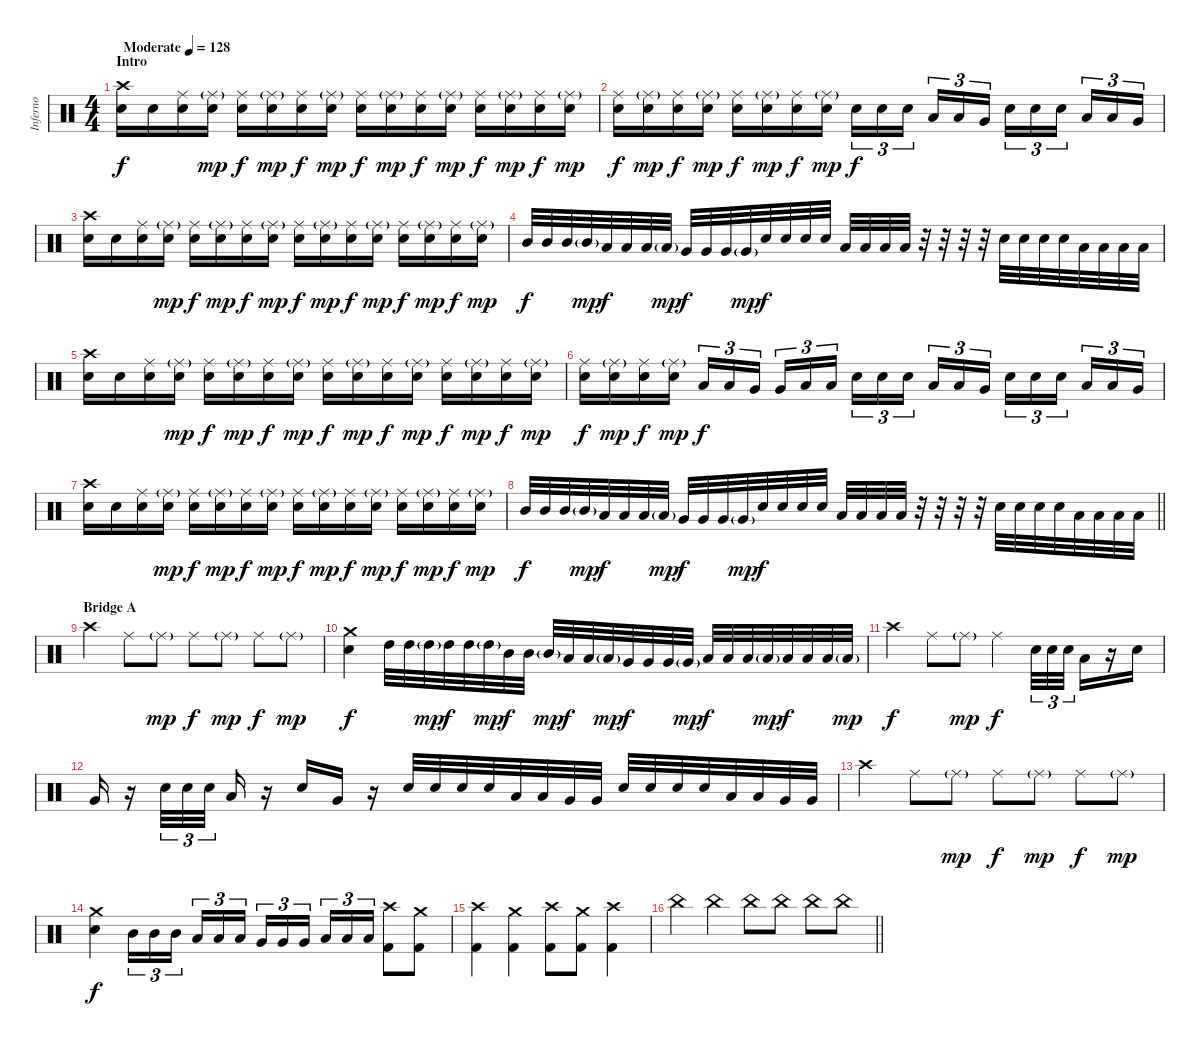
\track ("Inferno" "Inferno") {instrument percussion}
\staff {score}
\articulation defaults
\ts (4 4)
\section ("" "Intro")
\tempo (128 "Moderate")
\clef neutral
\ks c
("Crash high (hit)" "Snare (hit) 2").16{dy f} "Snare (hit) 2".16 ("Ride (middle)" "Snare (hit) 2").16 ("Ride (middle)"{g} "Snare (hit) 2").16{dy mp} ("Ride (middle)" "Snare (hit) 2").16{dy f} ("Ride (middle)"{g} "Snare (hit) 2").16{dy mp} ("Ride (middle)" "Snare (hit) 2").16{dy f} ("Ride (middle)"{g} "Snare (hit) 2").16{dy mp} ("Ride (middle)" "Snare (hit) 2").16{dy f} ("Ride (middle)"{g} "Snare (hit) 2").16{dy mp} ("Ride (middle)" "Snare (hit) 2").16{dy f} ("Ride (middle)"{g} "Snare (hit) 2").16{dy mp} ("Ride (middle)" "Snare (hit) 2").16{dy f} ("Ride (middle)"{g} "Snare (hit) 2").16{dy mp} ("Ride (middle)" "Snare (hit) 2").16{dy f} ("Ride (middle)"{g} "Snare (hit) 2").16{dy mp} |
("Ride (middle)" "Snare (hit) 2").16{dy f} ("Ride (middle)"{g} "Snare (hit) 2").16{dy mp} ("Ride (middle)" "Snare (hit) 2").16{dy f} ("Ride (middle)"{g} "Snare (hit) 2").16{dy mp} ("Ride (middle)" "Snare (hit) 2").16{dy f} ("Ride (middle)"{g} "Snare (hit) 2").16{dy mp} ("Ride (middle)" "Snare (hit) 2").16{dy f} ("Ride (middle)"{g} "Snare (hit) 2").16{dy mp} "Snare (hit) 2".16{tu (3 2) dy f} "Snare (hit) 2".16{tu (3 2)} "Snare (hit) 2".16{tu (3 2) beam splitsecondary} "Low Tom (hit)".16{tu (3 2)} "Low Tom (hit)".16{tu (3 2)} "Very Low Tom (hit)".16{tu (3 2)} "Snare (hit) 2".16{tu (3 2)} "Snare (hit) 2".16{tu (3 2)} "Snare (hit) 2".16{tu (3 2) beam splitsecondary} "Low Tom (hit)".16{tu (3 2)} "Low Tom (hit)".16{tu (3 2)} "Very Low Tom (hit)".16{tu (3 2)} |
("Crash high (hit)" "Snare (hit) 2").16 "Snare (hit) 2".16 ("Ride (middle)" "Snare (hit) 2").16 ("Ride (middle)"{g} "Snare (hit) 2").16{dy mp} ("Ride (middle)" "Snare (hit) 2").16{dy f} ("Ride (middle)"{g} "Snare (hit) 2").16{dy mp} ("Ride (middle)" "Snare (hit) 2").16{dy f} ("Ride (middle)"{g} "Snare (hit) 2").16{dy mp} ("Ride (middle)" "Snare (hit) 2").16{dy f} ("Ride (middle)"{g} "Snare (hit) 2").16{dy mp} ("Ride (middle)" "Snare (hit) 2").16{dy f} ("Ride (middle)"{g} "Snare (hit) 2").16{dy mp} ("Ride (middle)" "Snare (hit) 2").16{dy f} ("Ride (middle)"{g} "Snare (hit) 2").16{dy mp} ("Ride (middle)" "Snare (hit) 2").16{dy f} ("Ride (middle)"{g} "Snare (hit) 2").16{dy mp} |
"Mid Tom (hit)".32{dy f} "Mid Tom (hit)".32 "Mid Tom (hit)".32 "Mid Tom (hit)"{g}.32{dy mp} "Low Tom (hit)".32{dy f} "Low Tom (hit)".32 "Low Tom (hit)".32 "Low Tom (hit)"{g}.32{dy mp} "Very Low Tom (hit)".32{dy f} "Very Low Tom (hit)".32 "Very Low Tom (hit)".32 "Very Low Tom (hit)"{g}.32{dy mp} "Snare (hit) 2".32{dy f} "Snare (hit) 2".32 "Snare (hit) 2".32 "Snare (hit) 2".32 "Low Floor Tom (hit)".32 "Low Floor Tom (hit)".32 "Low Floor Tom (hit)".32 "Low Floor Tom (hit)".32 r.32 r.32 r.32 r.32 "Snare (hit) 2".32 "Snare (hit) 2".32 "Snare (hit) 2".32 "Snare (hit) 2".32 "Low Tom (hit)".32 "Low Tom (hit)".32 "Low Tom (hit)".32 "Low Tom (hit)".32 |
("Crash high (hit)" "Snare (hit) 2").16 "Snare (hit) 2".16 ("Ride (middle)" "Snare (hit) 2").16 ("Ride (middle)"{g} "Snare (hit) 2").16{dy mp} ("Ride (middle)" "Snare (hit) 2").16{dy f} ("Ride (middle)"{g} "Snare (hit) 2").16{dy mp} ("Ride (middle)" "Snare (hit) 2").16{dy f} ("Ride (middle)"{g} "Snare (hit) 2").16{dy mp} ("Ride (middle)" "Snare (hit) 2").16{dy f} ("Ride (middle)"{g} "Snare (hit) 2").16{dy mp} ("Ride (middle)" "Snare (hit) 2").16{dy f} ("Ride (middle)"{g} "Snare (hit) 2").16{dy mp} ("Ride (middle)" "Snare (hit) 2").16{dy f} ("Ride (middle)"{g} "Snare (hit) 2").16{dy mp} ("Ride (middle)" "Snare (hit) 2").16{dy f} ("Ride (middle)"{g} "Snare (hit) 2").16{dy mp} |
("Ride (middle)" "Snare (hit) 2").16{dy f} ("Ride (middle)"{g} "Snare (hit) 2").16{dy mp} ("Ride (middle)" "Snare (hit) 2").16{dy f} ("Ride (middle)"{g} "Snare (hit) 2").16{dy mp} "Low Tom (hit)".16{tu (3 2) dy f} "Low Tom (hit)".16{tu (3 2)} "Very Low Tom (hit)".16{tu (3 2) beam splitsecondary} "Very Low Tom (hit)".16{tu (3 2)} "Low Floor Tom (hit)".16{tu (3 2)} "Low Floor Tom (hit)".16{tu (3 2)} "Snare (hit) 2".16{tu (3 2)} "Snare (hit) 2".16{tu (3 2)} "Snare (hit) 2".16{tu (3 2) beam splitsecondary} "Low Tom (hit)".16{tu (3 2)} "Low Tom (hit)".16{tu (3 2)} "Very Low Tom (hit)".16{tu (3 2)} "Snare (hit) 2".16{tu (3 2)} "Snare (hit) 2".16{tu (3 2)} "Snare (hit) 2".16{tu (3 2) beam splitsecondary} "Low Tom (hit)".16{tu (3 2)} "Low Tom (hit)".16{tu (3 2)} "Very Low Tom (hit)".16{tu (3 2)} |
("Crash high (hit)" "Snare (hit) 2").16 "Snare (hit) 2".16 ("Ride (middle)" "Snare (hit) 2").16 ("Ride (middle)"{g} "Snare (hit) 2").16{dy mp} ("Ride (middle)" "Snare (hit) 2").16{dy f} ("Ride (middle)"{g} "Snare (hit) 2").16{dy mp} ("Ride (middle)" "Snare (hit) 2").16{dy f} ("Ride (middle)"{g} "Snare (hit) 2").16{dy mp} ("Ride (middle)" "Snare (hit) 2").16{dy f} ("Ride (middle)"{g} "Snare (hit) 2").16{dy mp} ("Ride (middle)" "Snare (hit) 2").16{dy f} ("Ride (middle)"{g} "Snare (hit) 2").16{dy mp} ("Ride (middle)" "Snare (hit) 2").16{dy f} ("Ride (middle)"{g} "Snare (hit) 2").16{dy mp} ("Ride (middle)" "Snare (hit) 2").16{dy f} ("Ride (middle)"{g} "Snare (hit) 2").16{dy mp} |
\barLineRight lightlight "Mid Tom (hit)".32{dy f} "Mid Tom (hit)".32 "Mid Tom (hit)".32 "Mid Tom (hit)"{g}.32{dy mp} "Low Tom (hit)".32{dy f} "Low Tom (hit)".32 "Low Tom (hit)".32 "Low Tom (hit)"{g}.32{dy mp} "Very Low Tom (hit)".32{dy f} "Very Low Tom (hit)".32 "Very Low Tom (hit)".32 "Very Low Tom (hit)"{g}.32{dy mp} "Snare (hit) 2".32{dy f} "Snare (hit) 2".32 "Snare (hit) 2".32 "Snare (hit) 2".32 "Low Floor Tom (hit)".32 "Low Floor Tom (hit)".32 "Low Floor Tom (hit)".32 "Low Floor Tom (hit)".32
r.32 r.32 r.32 r.32 "Snare (hit) 2".32 "Snare (hit) 2".32 "Snare (hit) 2".32 "Snare (hit) 2".32 "Low Tom (hit)".32 "Low Tom (hit)".32 "Low Tom (hit)".32 "Low Tom (hit)".32 |
\section ("" "Bridge A")
"Crash high (hit)".4 "Ride (middle)".8 "Ride (middle)"{g}.8{dy mp} "Ride (middle)".8{dy f} "Ride (middle)"{g}.8{dy mp} "Ride (middle)".8{dy f} "Ride (middle)"{g}.8{dy mp} |
("Crash medium (hit)" "Snare (hit) 2").4{dy f} "High Tom (hit)".32 "High Tom (hit)".32 "High Tom (hit)"{g}.32{dy mp} "High Tom (hit)".32{dy f} "High Tom (hit)".32 "High Tom (hit)"{g}.32{dy mp} "Mid Tom (hit)".32{dy f} "Mid Tom (hit)".32 "Mid Tom (hit)"{g}.32{dy mp} "Low Tom (hit)".32{dy f} "Low Tom (hit)".32 "Low Tom (hit)"{g}.32{dy mp} "Very Low Tom (hit)".32{dy f} "Very Low Tom (hit)".32 "Very Low Tom (hit)".32 "Very Low Tom (hit)"{g}.32{dy mp} "Low Floor Tom (hit)".32{dy f} "Low Floor Tom (hit)".32 "Low Floor Tom (hit)".32 "Low Floor Tom (hit)"{g}.32{dy mp} "Low Floor Tom (hit)".32{dy f} "Low Floor Tom (hit)".32 "Low Floor Tom (hit)".32 "Low Floor Tom (hit)"{g}.32{dy mp} |
"Crash high (hit)".4{dy f} "Ride (middle)".8 "Ride (middle)"{g}.8{dy mp} "Ride (middle)".4{dy f} "Snare (hit) 2".32{tu (3 2)} "Snare (hit) 2".32{tu (3 2)} "Snare (hit) 2".32{tu (3 2) beam splitsecondary} "Low Tom (hit)".16 r.16 "Snare (hit) 2".16 |
"Very Low Tom (hit)".16 r.16 "Snare (hit) 2".32{tu (3 2)} "Snare (hit) 2".32{tu (3 2)} "Snare (hit) 2".32{tu (3 2) beam splitsecondary} "Low Tom (hit)".16 r.16 "Snare (hit) 2".16 "Very Low Tom (hit)".16 r.16 "Snare (hit) 2".32 "Snare (hit) 2".32 "Snare (hit) 2".32 "Snare (hit) 2".32 "Low Tom (hit)".32 "Low Tom (hit)".32 "Very Low Tom (hit)".32 "Very Low Tom (hit)".32 "Snare (hit) 2".32 "Snare (hit) 2".32 "Snare (hit) 2".32 "Snare (hit) 2".32 "Low Tom (hit)".32 "Low Tom (hit)".32 "Very Low Tom (hit)".32 "Very Low Tom (hit)".32 |
"Crash high (hit)".4 "Ride (middle)".8 "Ride (middle)"{g}.8{dy mp} "Ride (middle)".8{dy f} "Ride (middle)"{g}.8{dy mp} "Ride (middle)".8{dy f} "Ride (middle)"{g}.8{dy mp} |
("Crash medium (hit)" "Snare (hit) 2").4{dy f} "Mid Tom (hit)".16{tu (3 2)} "Mid Tom (hit)".16{tu (3 2)} "Mid Tom (hit)".16{tu (3 2) beam splitsecondary} "Low Tom (hit)".16{tu (3 2)} "Low Tom (hit)".16{tu (3 2)} "Low Tom (hit)".16{tu (3 2)} "Very Low Tom (hit)".16{tu (3 2)} "Very Low Tom (hit)".16{tu (3 2)} "Very Low Tom (hit)".16{tu (3 2) beam splitsecondary} "Low Floor Tom (hit)".16{tu (3 2)} "Low Floor Tom (hit)".16{tu (3 2)} "Low Floor Tom (hit)".16{tu (3 2)} ("Crash high (hit)" "Kick (hit) 2").8 ("Crash medium (hit)" "Kick (hit) 2").8 |
("Crash high (hit)" "Kick (hit) 2").4 ("Crash medium (hit)" "Kick (hit) 2").4 ("Crash high (hit)" "Kick (hit) 2").8 ("Crash medium (hit)" "Kick (hit) 2").8 ("Crash high (hit)" "Kick (hit) 2").4 |
\barLineRight lightlight "China (hit)".4 "China (hit)".4 "China (hit)".8 "China (hit)".8 "China (hit)".8 "China (hit)".8
